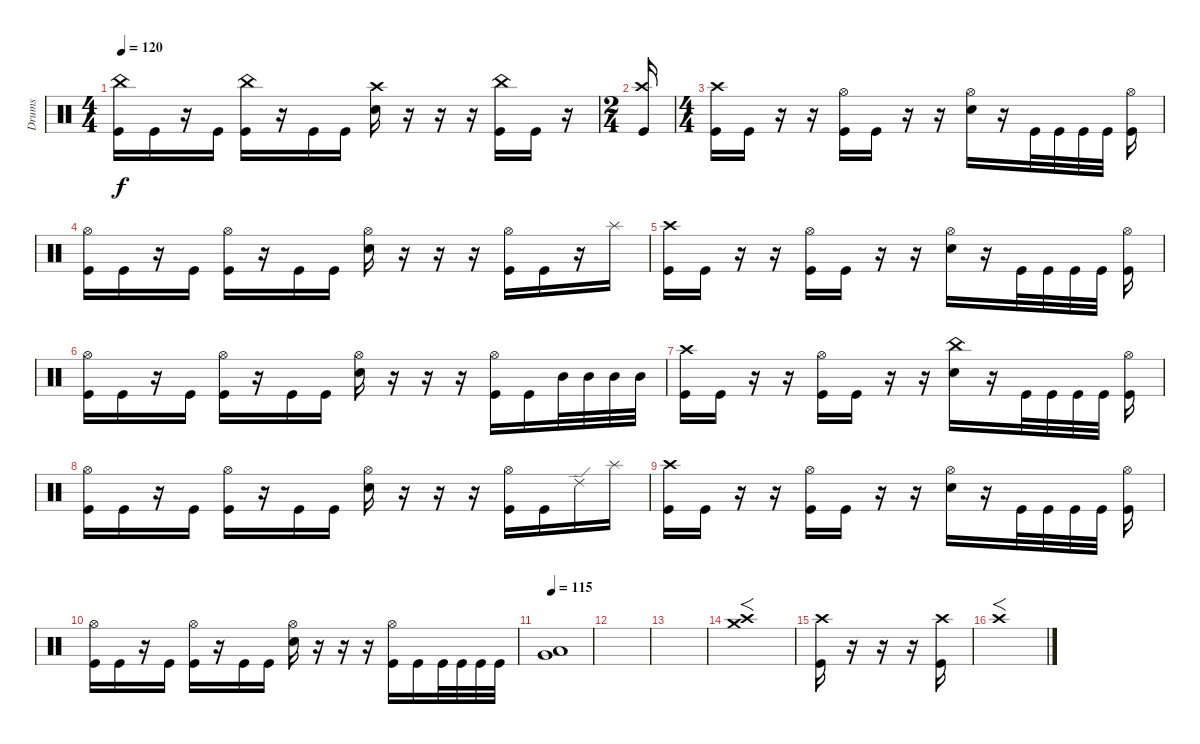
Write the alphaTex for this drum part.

\track ("Drums" "Drums") {instrument percussion}
\staff {score}
\articulation defaults
\ts (4 4)
\tempo 120
\clef neutral
\ks c
("China (hit)" "Kick (hit)").16{dy f} "Kick (hit)".16 r.16 "Kick (hit)".16 ("China (hit)" "Kick (hit)").16 r.16 "Kick (hit)".16 "Kick (hit)".16 ("Crash high (hit)" "Electric Snare (hit)").16 r.16 r.16 r.16 ("China (hit)" "Kick (hit)").16 "Kick (hit)".16 r.16 |
\ts (2 4)
("Crash high (hit)" "Kick (hit)").16{beam Up} |
\ts (4 4)
("Crash high (hit)" "Kick (hit)").16 "Kick (hit)".16 r.16 r.16 ("Hi-Hat (open)" "Kick (hit)").16 "Kick (hit)".16 r.16 r.16 ("Hi-Hat (open)" "Electric Snare (hit)").16 r.16 "Kick (hit)".32 "Kick (hit)".32 "Kick (hit)".32 "Kick (hit)".32 ("Hi-Hat (open)" "Kick (hit)").16 |
("Hi-Hat (open)" "Kick (hit)").16 "Kick (hit)".16 r.16 "Kick (hit)".16 ("Hi-Hat (open)" "Kick (hit)").16 r.16 "Kick (hit)".16 "Kick (hit)".16 ("Hi-Hat (open)" "Electric Snare (hit)").16 r.16 r.16 r.16 ("Hi-Hat (open)" "Kick (hit)").16 "Kick (hit)".16 r.16 "Splash (hit)".16 |
("Crash high (hit)" "Kick (hit)").16 "Kick (hit)".16 r.16 r.16 ("Hi-Hat (open)" "Kick (hit)").16 "Kick (hit)".16 r.16 r.16 ("Hi-Hat (open)" "Electric Snare (hit)").16 r.16 "Kick (hit)".32 "Kick (hit)".32 "Kick (hit)".32 "Kick (hit)".32 ("Hi-Hat (open)" "Kick (hit)").16 |
("Hi-Hat (open)" "Kick (hit)").16 "Kick (hit)".16 r.16 "Kick (hit)".16 ("Hi-Hat (open)" "Kick (hit)").16 r.16 "Kick (hit)".16 "Kick (hit)".16 ("Hi-Hat (open)" "Electric Snare (hit)").16 r.16 r.16 r.16 ("Hi-Hat (open)" "Kick (hit)").16 "Kick (hit)".16 "Mid Tom (hit)".32 "Mid Tom (hit)".32 "Mid Tom (hit)".32 "Mid Tom (hit)".32 |
("Crash high (hit)" "Kick (hit)").16 "Kick (hit)".16 r.16 r.16 ("Hi-Hat (open)" "Kick (hit)").16 "Kick (hit)".16 r.16 r.16 ("China (hit)" "Electric Snare (hit)").16 r.16 "Kick (hit)".32 "Kick (hit)".32 "Kick (hit)".32 "Kick (hit)".32 ("Hi-Hat (open)" "Kick (hit)").16 |
("Hi-Hat (open)" "Kick (hit)").16 "Kick (hit)".16 r.16 "Kick (hit)".16 ("Hi-Hat (open)" "Kick (hit)").16 r.16 "Kick (hit)".16 "Kick (hit)".16 ("Hi-Hat (open)" "Electric Snare (hit)").16 r.16 r.16 r.16 ("Hi-Hat (open)" "Kick (hit)").16 "Kick (hit)".16 "Ride (edge) 2".16 "Splash (hit)".16 |
("Crash high (hit)" "Kick (hit)").16 "Kick (hit)".16 r.16 r.16 ("Hi-Hat (open)" "Kick (hit)").16 "Kick (hit)".16 r.16 r.16 ("Hi-Hat (open)" "Electric Snare (hit)").16 r.16 "Kick (hit)".32 "Kick (hit)".32 "Kick (hit)".32 "Kick (hit)".32 ("Hi-Hat (open)" "Kick (hit)").16 |
("Hi-Hat (open)" "Kick (hit)").16 "Kick (hit)".16 r.16 "Kick (hit)".16 ("Hi-Hat (open)" "Kick (hit)").16 r.16 "Kick (hit)".16 "Kick (hit)".16 ("Hi-Hat (open)" "Electric Snare (hit)").16 r.16 r.16 r.16 ("Hi-Hat (open)" "Kick (hit)").16 "Kick (hit)".16 "Kick (hit)".32 "Kick (hit)".32 "Kick (hit)".32 "Kick (hit)".32 |
\tempo 115
("Low Tom (hit)" "Very Low Tom (hit)").1 |
|
|
("Crash high (hit)" "Crash medium (hit)").1{f} |
("Crash high (hit)" "Kick (hit)").16 r.16 r.16 r.16 ("Crash high (hit)" "Kick (hit)").16 |
"Crash high (hit)".1{f}
